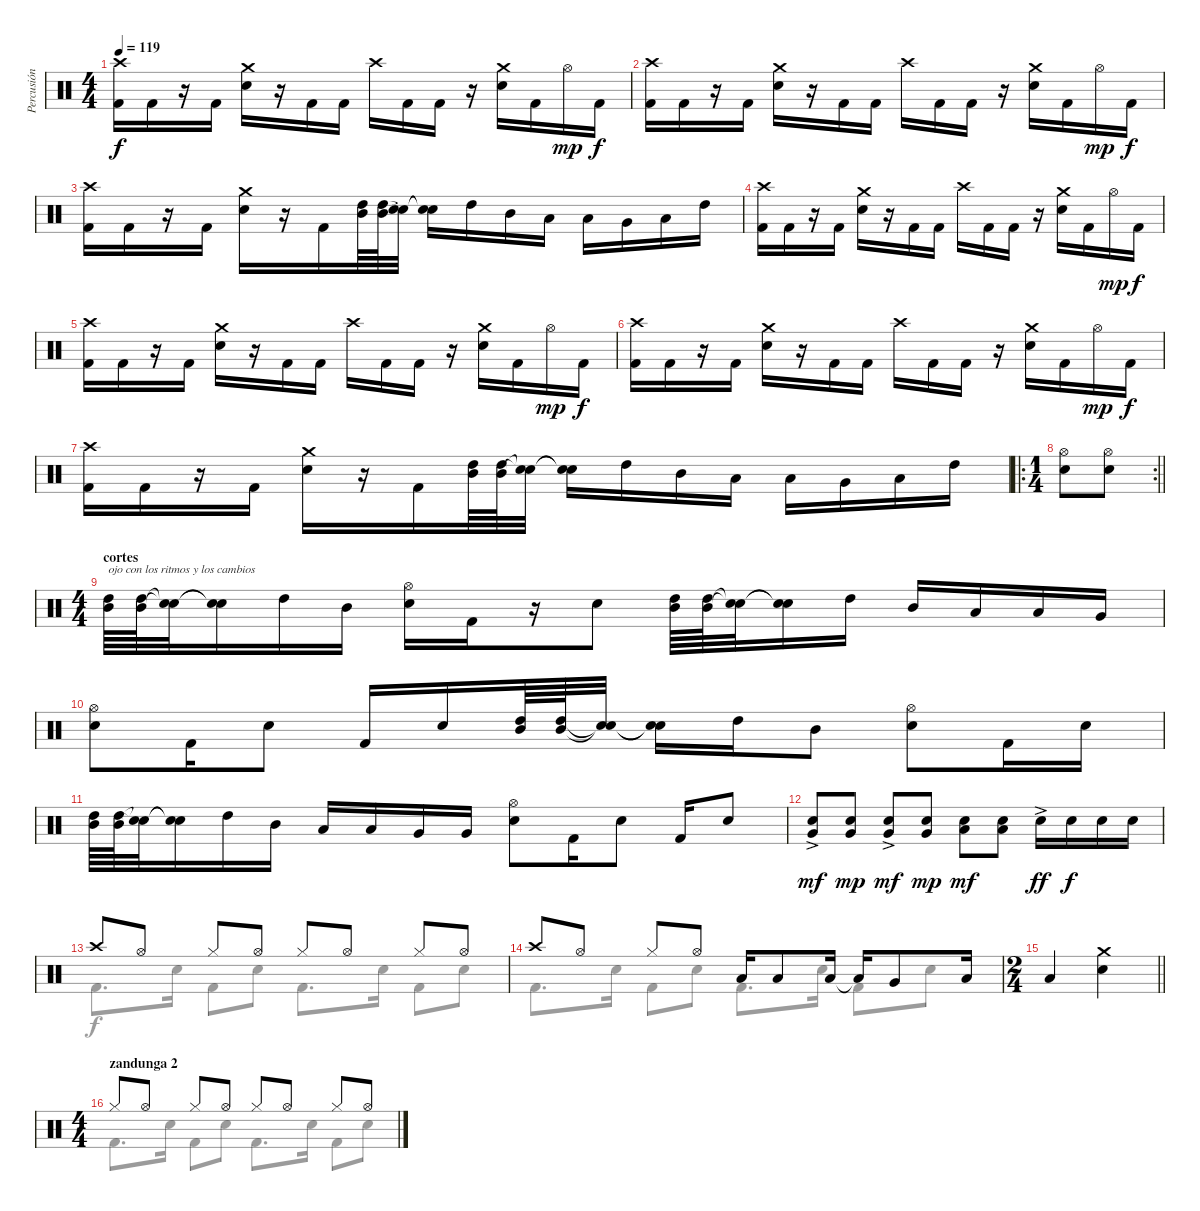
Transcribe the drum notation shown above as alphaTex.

\track ("Percusión" "Percusión") {mute instrument percussion}
\staff {score}
\articulation defaults
\voice
\ts (4 4)
\tempo 119
\clef neutral
\ks c
("Kick (hit) 2" "Crash high (hit)").16{dy f} "Kick (hit) 2".16 r.16 "Kick (hit) 2".16 ("Crash medium (hit)" "Snare (hit) 2").16 r.16 "Kick (hit) 2".16 "Kick (hit) 2".16 "Crash high (hit)".16 "Kick (hit) 2".16 "Kick (hit) 2".16 r.16 ("Crash medium (hit)" "Snare (hit) 2").16 "Kick (hit) 2".16 "Hi-Hat (open)".16{dy mp} "Kick (hit) 2".16{dy f} |
("Kick (hit) 2" "Crash high (hit)").16 "Kick (hit) 2".16 r.16 "Kick (hit) 2".16 ("Crash medium (hit)" "Snare (hit) 2").16 r.16 "Kick (hit) 2".16 "Kick (hit) 2".16 "Crash high (hit)".16 "Kick (hit) 2".16 "Kick (hit) 2".16 r.16 ("Crash medium (hit)" "Snare (hit) 2").16 "Kick (hit) 2".16 "Hi-Hat (open)".16{dy mp} "Kick (hit) 2".16{dy f} |
("Kick (hit) 2" "Crash high (hit)").16 "Kick (hit) 2".16 r.16 "Kick (hit) 2".16 ("Crash medium (hit)" "Snare (hit) 2").16 r.16 "Kick (hit) 2".16 ("High Tom (hit)" "Mid Tom (hit)").64 ("High Tom (hit)" "Mid Tom (hit)").64 ("Snare (hit)"{t} "Snare (hit)"{t}).32 ("Snare (hit)"{t} "Snare (hit)"{t}).16 "High Tom (hit)".16 "Mid Tom (hit)".16 "Low Tom (hit)".16 "Low Tom (hit)".16 "Very Low Tom (hit)".16 "Low Floor Tom (hit)".16 "High Tom (hit)".16 |
("Kick (hit) 2" "Crash high (hit)").16 "Kick (hit) 2".16 r.16 "Kick (hit) 2".16 ("Crash medium (hit)" "Snare (hit) 2").16 r.16 "Kick (hit) 2".16 "Kick (hit) 2".16 "Crash high (hit)".16 "Kick (hit) 2".16 "Kick (hit) 2".16 r.16 ("Crash medium (hit)" "Snare (hit) 2").16 "Kick (hit) 2".16 "Hi-Hat (open)".16{dy mp} "Kick (hit) 2".16{dy f} |
("Kick (hit) 2" "Crash high (hit)").16 "Kick (hit) 2".16 r.16 "Kick (hit) 2".16 ("Crash medium (hit)" "Snare (hit) 2").16 r.16 "Kick (hit) 2".16 "Kick (hit) 2".16 "Crash high (hit)".16 "Kick (hit) 2".16 "Kick (hit) 2".16 r.16 ("Crash medium (hit)" "Snare (hit) 2").16 "Kick (hit) 2".16 "Hi-Hat (open)".16{dy mp} "Kick (hit) 2".16{dy f} |
("Kick (hit) 2" "Crash high (hit)").16 "Kick (hit) 2".16 r.16 "Kick (hit) 2".16 ("Crash medium (hit)" "Snare (hit) 2").16 r.16 "Kick (hit) 2".16 "Kick (hit) 2".16 "Crash high (hit)".16 "Kick (hit) 2".16 "Kick (hit) 2".16 r.16 ("Crash medium (hit)" "Snare (hit) 2").16 "Kick (hit) 2".16 "Hi-Hat (open)".16{dy mp} "Kick (hit) 2".16{dy f} |
("Kick (hit) 2" "Crash high (hit)").16 "Kick (hit) 2".16 r.16 "Kick (hit) 2".16 ("Crash medium (hit)" "Snare (hit) 2").16 r.16 "Kick (hit) 2".16 ("High Tom (hit)" "Mid Tom (hit)").64 ("High Tom (hit)" "Mid Tom (hit)").64 ("Snare (hit)"{t} "Snare (hit)"{t}).32 ("Snare (hit)"{t} "Snare (hit)"{t}).16 "High Tom (hit)".16 "Mid Tom (hit)".16 "Low Tom (hit)".16 "Low Tom (hit)".16 "Very Low Tom (hit)".16 "Low Floor Tom (hit)".16 "High Tom (hit)".16 |
\ro
\rc 2
\ts (1 4)
\barLineRight lightlight
("Electric Snare (hit)" "Hi-Hat (open)").8 ("Electric Snare (hit)" "Hi-Hat (open)").8 |
\ts (4 4)
\section ("" "cortes")
("High Tom (hit)" "Mid Tom (hit)").64{txt "ojo con los ritmos y los cambios"} ("High Tom (hit)" "Mid Tom (hit)").64 ("Snare (hit)"{t} "Snare (hit)"{t}).32 ("Snare (hit)"{t} "Snare (hit)"{t}).16 "High Tom (hit)".16 "Mid Tom (hit)".16 ("Electric Snare (hit)" "Hi-Hat (open)").16 "Kick (hit) 2".16 r.16 "Electric Snare (hit)".8 ("High Tom (hit)" "Mid Tom (hit)").64 ("High Tom (hit)" "Mid Tom (hit)").64 ("Snare (hit)"{t} "Snare (hit)"{t}).32 ("Snare (hit)"{t} "Snare (hit)"{t}).16 "High Tom (hit)".16 "Mid Tom (hit)".16 "Low Tom (hit)".16 "Low Tom (hit)".16 "Very Low Tom (hit)".16 |
("Electric Snare (hit)" "Hi-Hat (open)").8 "Kick (hit) 2".16 "Electric Snare (hit)".8 "Kick (hit) 2".16 "Electric Snare (hit)".16 ("High Tom (hit)" "Mid Tom (hit)").64 ("High Tom (hit)" "Mid Tom (hit)").64 ("Snare (hit)"{t} "Snare (hit)"{t}).32 ("Snare (hit)"{t} "Snare (hit)"{t}).16 "High Tom (hit)".16 "Mid Tom (hit)".8 ("Electric Snare (hit)" "Hi-Hat (open)").8 "Kick (hit) 2".16 "Electric Snare (hit)".16 |
("High Tom (hit)" "Mid Tom (hit)").64 ("High Tom (hit)" "Mid Tom (hit)").64 ("Snare (hit)"{t} "Snare (hit)"{t}).32 ("Snare (hit)"{t} "Snare (hit)"{t}).16 "High Tom (hit)".16 "Mid Tom (hit)".16 "Low Tom (hit)".16 "Low Tom (hit)".16 "Very Low Tom (hit)".16 "Very Low Tom (hit)".16 ("Electric Snare (hit)" "Hi-Hat (open)").8 "Kick (hit) 2".16 "Electric Snare (hit)".8 "Kick (hit) 2".16 "Electric Snare (hit)".8 |
("Very Low Tom (hit)" "Snare (hit) 2"{ac}).8{dy mf} ("Snare (hit) 2" "Very Low Tom (hit)").8{dy mp} ("Very Low Tom (hit)" "Snare (hit) 2"{ac}).8{dy mf} ("Very Low Tom (hit)" "Snare (hit) 2").8{dy mp} ("Low Floor Tom (hit)" "Snare (hit) 2").8{dy mf} ("Snare (hit) 2" "Low Floor Tom (hit)").8 "Snare (hit) 2"{ac}.16{dy ff} "Snare (hit) 2".16{dy f} "Snare (hit) 2".16 "Snare (hit) 2".16 |
"Crash high (hit)".8 "Hi-Hat (open)".8 "Hi-Hat (closed)".8 "Hi-Hat (open)".8 "Hi-Hat (closed)".8 "Hi-Hat (open)".8 "Hi-Hat (closed)".8 "Hi-Hat (open)".8 |
"Crash high (hit)".8 "Hi-Hat (open)".8 "Hi-Hat (closed)".8 "Hi-Hat (open)".8 "Low Tom (hit)".16 "Low Tom (hit)".8 "Low Tom (hit)".16 "Low Tom (hit)"{t}.16 "Very Low Tom (hit)".8 "Low Floor Tom (hit)".16 |
\ts (2 4)
\barLineRight lightlight "Low Floor Tom (hit)".4
("Snare (hit) 2" "Crash medium (hit)").4 |
\ts (4 4)
\section ("" "zandunga 2")
"Hi-Hat (closed)".8 "Hi-Hat (open)".8 "Hi-Hat (closed)".8 "Hi-Hat (open)".8 "Hi-Hat (closed)".8 "Hi-Hat (open)".8 "Hi-Hat (closed)".8 "Hi-Hat (open)".8
\voice
\clef neutral
\ottava regular
\simile none
\ks c
|
|
|
|
|
|
|
\barLineRight lightlight
|
|
|
|
|
"Kick (hit) 2".8{d} "Snare (hit) 2".16 "Kick (hit) 2".8 "Snare (hit) 2".8 "Kick (hit) 2".8{d} "Snare (hit) 2".16 "Kick (hit) 2".8 "Snare (hit) 2".8 |
"Kick (hit) 2".8{d} "Snare (hit) 2".16 "Kick (hit) 2".8 "Snare (hit) 2".8 "Kick (hit) 2".8{d} "Snare (hit) 2".16 "Kick (hit) 2".8 "Snare (hit) 2".8 |
\barLineRight lightlight
|
"Kick (hit) 2".8{d} "Snare (hit) 2".16 "Kick (hit) 2".8 "Snare (hit) 2".8 "Kick (hit) 2".8{d} "Snare (hit) 2".16 "Kick (hit) 2".8 "Snare (hit) 2".8
